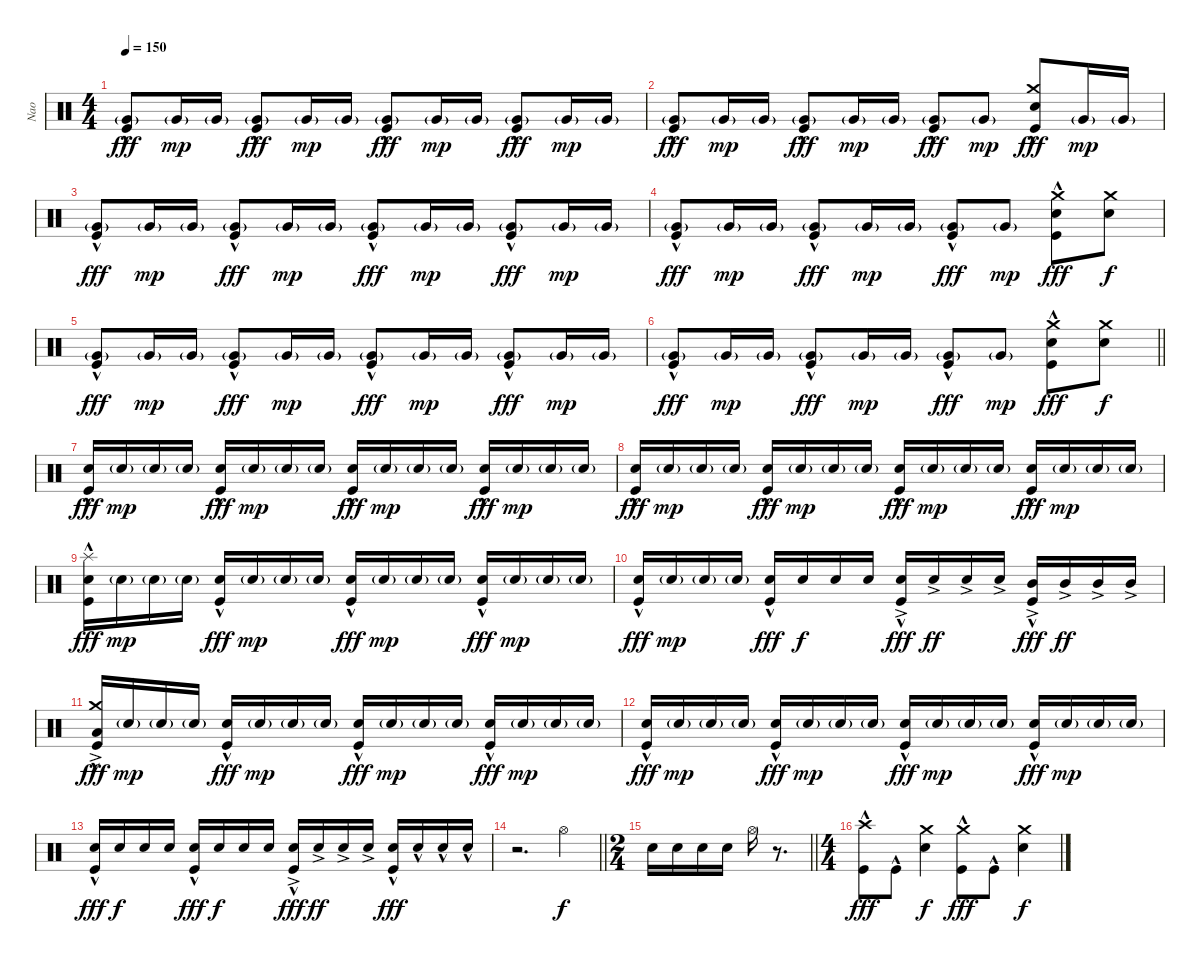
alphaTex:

\track ("Nao" "Nao") {instrument percussion}
\staff {score}
\articulation defaults
\ts (4 4)
\tempo 150
\clef neutral
\ks c
("Very Low Tom (hit)"{g} "Kick (hit)"{hac}).8{dy fff} "Very Low Tom (hit)"{g}.16{dy mp} "Very Low Tom (hit)"{g}.16 ("Very Low Tom (hit)"{g} "Kick (hit)"{hac}).8{dy fff} "Very Low Tom (hit)"{g}.16{dy mp} "Very Low Tom (hit)"{g}.16 ("Very Low Tom (hit)"{g} "Kick (hit)"{hac}).8{dy fff} "Very Low Tom (hit)"{g}.16{dy mp} "Very Low Tom (hit)"{g}.16 ("Very Low Tom (hit)"{g} "Kick (hit)"{hac}).8{dy fff} "Very Low Tom (hit)"{g}.16{dy mp} "Very Low Tom (hit)"{g}.16 |
("Very Low Tom (hit)"{g} "Kick (hit)"{hac}).8{dy fff} "Very Low Tom (hit)"{g}.16{dy mp} "Very Low Tom (hit)"{g}.16 ("Very Low Tom (hit)"{g} "Kick (hit)"{hac}).8{dy fff} "Very Low Tom (hit)"{g}.16{dy mp} "Very Low Tom (hit)"{g}.16 ("Very Low Tom (hit)"{g} "Kick (hit)"{hac}).8{dy fff} "Very Low Tom (hit)"{g}.8{dy mp} ("Crash medium (hit)" "Electric Snare (hit)" "Kick (hit)"{hac}).8{dy fff} "Very Low Tom (hit)"{g}.16{dy mp} "Very Low Tom (hit)"{g}.16 |
("Very Low Tom (hit)"{g} "Kick (hit)"{hac}).8{dy fff} "Very Low Tom (hit)"{g}.16{dy mp} "Very Low Tom (hit)"{g}.16 ("Very Low Tom (hit)"{g} "Kick (hit)"{hac}).8{dy fff} "Very Low Tom (hit)"{g}.16{dy mp} "Very Low Tom (hit)"{g}.16 ("Very Low Tom (hit)"{g} "Kick (hit)"{hac}).8{dy fff} "Very Low Tom (hit)"{g}.16{dy mp} "Very Low Tom (hit)"{g}.16 ("Very Low Tom (hit)"{g} "Kick (hit)"{hac}).8{dy fff} "Very Low Tom (hit)"{g}.16{dy mp} "Very Low Tom (hit)"{g}.16 |
("Very Low Tom (hit)"{g} "Kick (hit)"{hac}).8{dy fff} "Very Low Tom (hit)"{g}.16{dy mp} "Very Low Tom (hit)"{g}.16 ("Very Low Tom (hit)"{g} "Kick (hit)"{hac}).8{dy fff} "Very Low Tom (hit)"{g}.16{dy mp} "Very Low Tom (hit)"{g}.16 ("Very Low Tom (hit)"{g} "Kick (hit)"{hac}).8{dy fff} "Very Low Tom (hit)"{g}.8{dy mp} ("Crash medium (hit)" "Electric Snare (hit)" "Kick (hit)"{hac}).8{dy fff} ("Crash medium (hit)" "Electric Snare (hit)").8{dy f} |
("Very Low Tom (hit)"{g} "Kick (hit)"{hac}).8{dy fff} "Very Low Tom (hit)"{g}.16{dy mp} "Very Low Tom (hit)"{g}.16 ("Very Low Tom (hit)"{g} "Kick (hit)"{hac}).8{dy fff} "Very Low Tom (hit)"{g}.16{dy mp} "Very Low Tom (hit)"{g}.16 ("Very Low Tom (hit)"{g} "Kick (hit)"{hac}).8{dy fff} "Very Low Tom (hit)"{g}.16{dy mp} "Very Low Tom (hit)"{g}.16 ("Very Low Tom (hit)"{g} "Kick (hit)"{hac}).8{dy fff} "Very Low Tom (hit)"{g}.16{dy mp} "Very Low Tom (hit)"{g}.16 |
\barLineRight lightlight
("Very Low Tom (hit)"{g} "Kick (hit)"{hac}).8{dy fff} "Very Low Tom (hit)"{g}.16{dy mp} "Very Low Tom (hit)"{g}.16 ("Very Low Tom (hit)"{g} "Kick (hit)"{hac}).8{dy fff} "Very Low Tom (hit)"{g}.16{dy mp} "Very Low Tom (hit)"{g}.16 ("Very Low Tom (hit)"{g} "Kick (hit)"{hac}).8{dy fff} "Very Low Tom (hit)"{g}.8{dy mp} ("Crash medium (hit)" "Electric Snare (hit)" "Kick (hit)"{hac}).8{dy fff} ("Crash medium (hit)" "Electric Snare (hit)").8{dy f} |
\section ("" "")
("Electric Snare (hit)" "Kick (hit)"{hac}).16{dy fff} "Electric Snare (hit)"{g}.16{dy mp} "Electric Snare (hit)"{g}.16 "Electric Snare (hit)"{g}.16 ("Electric Snare (hit)" "Kick (hit)"{hac}).16{dy fff} "Electric Snare (hit)"{g}.16{dy mp} "Electric Snare (hit)"{g}.16 "Electric Snare (hit)"{g}.16 ("Electric Snare (hit)" "Kick (hit)"{hac}).16{dy fff} "Electric Snare (hit)"{g}.16{dy mp} "Electric Snare (hit)"{g}.16 "Electric Snare (hit)"{g}.16 ("Electric Snare (hit)" "Kick (hit)"{hac}).16{dy fff} "Electric Snare (hit)"{g}.16{dy mp} "Electric Snare (hit)"{g}.16 "Electric Snare (hit)"{g}.16 |
("Electric Snare (hit)" "Kick (hit)"{hac}).16{dy fff} "Electric Snare (hit)"{g}.16{dy mp} "Electric Snare (hit)"{g}.16 "Electric Snare (hit)"{g}.16 ("Electric Snare (hit)" "Kick (hit)"{hac}).16{dy fff} "Electric Snare (hit)"{g}.16{dy mp} "Electric Snare (hit)"{g}.16 "Electric Snare (hit)"{g}.16 ("Electric Snare (hit)" "Kick (hit)"{hac}).16{dy fff} "Electric Snare (hit)"{g}.16{dy mp} "Electric Snare (hit)"{g}.16 "Electric Snare (hit)"{g}.16 ("Electric Snare (hit)" "Kick (hit)"{hac}).16{dy fff} "Electric Snare (hit)"{g}.16{dy mp} "Electric Snare (hit)"{g}.16 "Electric Snare (hit)"{g}.16 |
("Splash (hit)" "Electric Snare (hit)" "Kick (hit)"{hac}).16{dy fff} "Electric Snare (hit)"{g}.16{dy mp} "Electric Snare (hit)"{g}.16 "Electric Snare (hit)"{g}.16 ("Electric Snare (hit)" "Kick (hit)"{hac}).16{dy fff} "Electric Snare (hit)"{g}.16{dy mp} "Electric Snare (hit)"{g}.16 "Electric Snare (hit)"{g}.16 ("Electric Snare (hit)" "Kick (hit)"{hac}).16{dy fff} "Electric Snare (hit)"{g}.16{dy mp} "Electric Snare (hit)"{g}.16 "Electric Snare (hit)"{g}.16 ("Electric Snare (hit)" "Kick (hit)"{hac}).16{dy fff} "Electric Snare (hit)"{g}.16{dy mp} "Electric Snare (hit)"{g}.16 "Electric Snare (hit)"{g}.16 |
("Electric Snare (hit)" "Kick (hit)"{hac}).16{dy fff} "Electric Snare (hit)"{g}.16{dy mp} "Electric Snare (hit)"{g}.16 "Electric Snare (hit)"{g}.16 ("Electric Snare (hit)" "Kick (hit)"{hac}).16{dy fff} "Electric Snare (hit)".16{dy f} "Electric Snare (hit)".16 "Electric Snare (hit)".16 ("Electric Snare (hit)"{ac} "Kick (hit)"{hac}).16{dy fff} "Electric Snare (hit)"{ac}.16{dy ff} "Electric Snare (hit)"{ac}.16 "Electric Snare (hit)"{ac}.16 ("Mid Tom (hit)"{ac} "Kick (hit)"{hac}).16{dy fff} "Mid Tom (hit)"{ac}.16{dy ff} "Mid Tom (hit)"{ac}.16 "Mid Tom (hit)"{ac}.16 |
("Crash medium (hit)" "Low Tom (hit)"{ac} "Kick (hit)"{hac}).16{dy fff} "Electric Snare (hit)"{g}.16{dy mp} "Electric Snare (hit)"{g}.16 "Electric Snare (hit)"{g}.16 ("Electric Snare (hit)" "Kick (hit)"{hac}).16{dy fff} "Electric Snare (hit)"{g}.16{dy mp} "Electric Snare (hit)"{g}.16 "Electric Snare (hit)"{g}.16 ("Electric Snare (hit)" "Kick (hit)"{hac}).16{dy fff} "Electric Snare (hit)"{g}.16{dy mp} "Electric Snare (hit)"{g}.16 "Electric Snare (hit)"{g}.16 ("Electric Snare (hit)" "Kick (hit)"{hac}).16{dy fff} "Electric Snare (hit)"{g}.16{dy mp} "Electric Snare (hit)"{g}.16 "Electric Snare (hit)"{g}.16 |
("Electric Snare (hit)" "Kick (hit)"{hac}).16{dy fff} "Electric Snare (hit)"{g}.16{dy mp} "Electric Snare (hit)"{g}.16 "Electric Snare (hit)"{g}.16 ("Electric Snare (hit)" "Kick (hit)"{hac}).16{dy fff} "Electric Snare (hit)"{g}.16{dy mp} "Electric Snare (hit)"{g}.16 "Electric Snare (hit)"{g}.16 ("Electric Snare (hit)" "Kick (hit)"{hac}).16{dy fff} "Electric Snare (hit)"{g}.16{dy mp} "Electric Snare (hit)"{g}.16 "Electric Snare (hit)"{g}.16 ("Electric Snare (hit)" "Kick (hit)"{hac}).16{dy fff} "Electric Snare (hit)"{g}.16{dy mp} "Electric Snare (hit)"{g}.16 "Electric Snare (hit)"{g}.16 |
("Electric Snare (hit)" "Kick (hit)"{hac}).16{dy fff} "Electric Snare (hit)".16{dy f} "Electric Snare (hit)".16 "Electric Snare (hit)".16 ("Electric Snare (hit)" "Kick (hit)"{hac}).16{dy fff} "Electric Snare (hit)".16{dy f} "Electric Snare (hit)".16 "Electric Snare (hit)".16 ("Electric Snare (hit)"{ac} "Kick (hit)"{hac}).16{dy fff} "Electric Snare (hit)"{ac}.16{dy ff} "Electric Snare (hit)"{ac}.16 "Electric Snare (hit)"{ac}.16 ("Electric Snare (hit)"{hac} "Kick (hit)"{hac}).16{dy fff} "Electric Snare (hit)"{hac}.16 "Electric Snare (hit)"{hac}.16 "Electric Snare (hit)"{hac}.16 |
\barLineRight lightlight
r.2{d} "Hi-Hat (open)".4{dy f} |
\ts (2 4)
\barLineRight lightlight "Electric Snare (hit)".16 "Electric Snare (hit)".16 "Electric Snare (hit)".16 "Electric Snare (hit)".16 "Hi-Hat (open)".16
r.8{d} |
\ts (4 4)
\section ("" "")
("Crash high (hit)" "Kick (hit)"{hac}).8{dy fff} "Kick (hit)"{hac}.8 ("Crash medium (hit)" "Electric Snare (hit)").4{dy f} ("Crash medium (hit)" "Kick (hit)"{hac}).8{dy fff} "Kick (hit)"{hac}.8 ("Crash medium (hit)" "Electric Snare (hit)").4{dy f}
